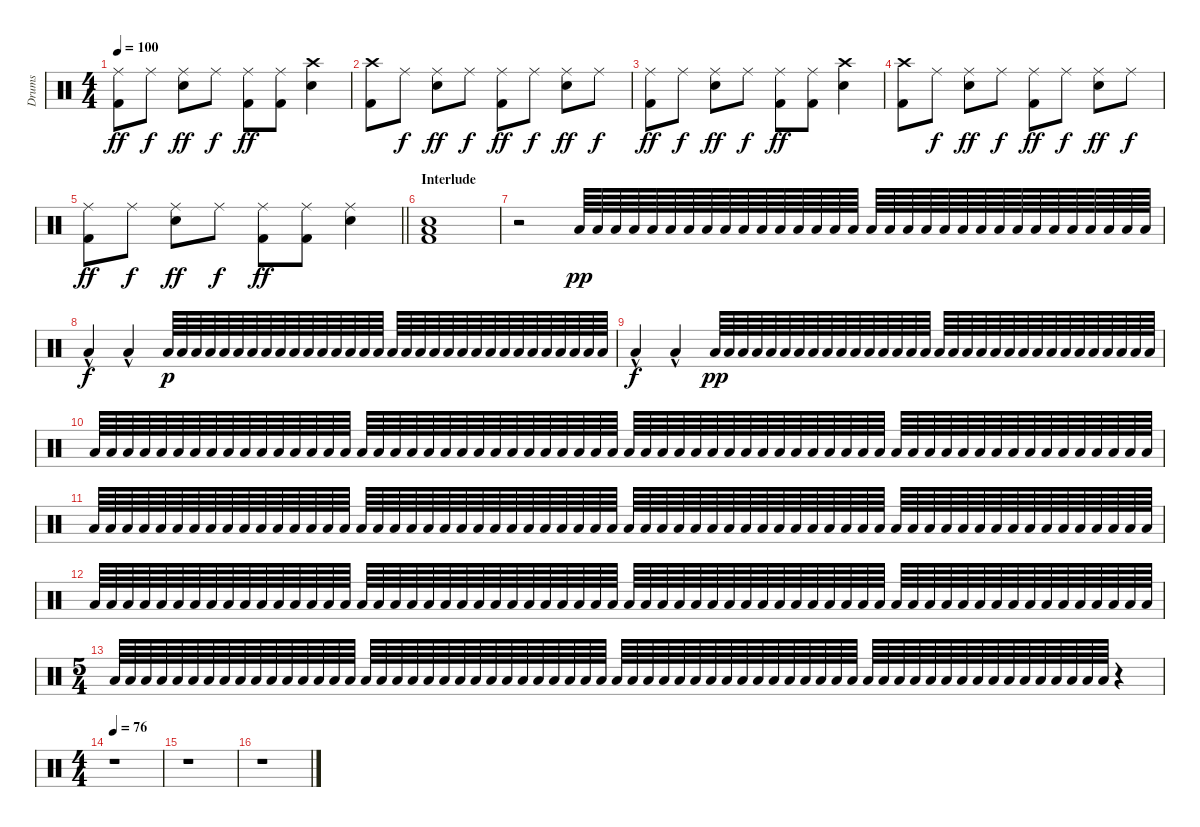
\track ("Drums" "Drums") {instrument percussion}
\staff {score}
\articulation defaults
\ts (4 4)
\tempo 100
\clef neutral
\ks c
("Ride (middle)" "Kick (hit) 2").8{dy ff} "Ride (middle)".8{dy f} ("Ride (middle)" "Snare (hit) 2").8{dy ff} "Ride (middle)".8{dy f} ("Ride (middle)" "Kick (hit) 2").8{dy ff} ("Ride (middle)" "Kick (hit) 2").8 ("Crash high (hit)" "Snare (hit) 2").4 |
("Crash high (hit)" "Kick (hit) 2").8 "Ride (middle)".8{dy f} ("Ride (middle)" "Snare (hit) 2").8{dy ff} "Ride (middle)".8{dy f} ("Ride (middle)" "Kick (hit) 2").8{dy ff} "Ride (middle)".8{dy f} ("Ride (middle)" "Snare (hit) 2").8{dy ff} "Ride (middle)".8{dy f} |
("Ride (middle)" "Kick (hit) 2").8{dy ff} "Ride (middle)".8{dy f} ("Ride (middle)" "Snare (hit) 2").8{dy ff} "Ride (middle)".8{dy f} ("Ride (middle)" "Kick (hit) 2").8{dy ff} ("Ride (middle)" "Kick (hit) 2").8 ("Crash high (hit)" "Snare (hit) 2").4 |
("Crash high (hit)" "Kick (hit) 2").8 "Ride (middle)".8{dy f} ("Ride (middle)" "Snare (hit) 2").8{dy ff} "Ride (middle)".8{dy f} ("Ride (middle)" "Kick (hit) 2").8{dy ff} "Ride (middle)".8{dy f} ("Ride (middle)" "Snare (hit) 2").8{dy ff} "Ride (middle)".8{dy f} |
\barLineRight lightlight
("Ride (middle)" "Kick (hit) 2").8{dy ff} "Ride (middle)".8{dy f} ("Ride (middle)" "Snare (hit) 2").8{dy ff} "Ride (middle)".8{dy f} ("Ride (middle)" "Kick (hit) 2").8{dy ff} ("Ride (middle)" "Kick (hit) 2").8 ("Ride (middle)" "Snare (hit) 2").4 |
\section ("" "Interlude")
("Low Floor Tom (hit)" "Snare (hit) 2" "Kick (hit) 2").1 |
r.2 "Low Tom (hit)".64{dy pp} "Low Tom (hit)".64 "Low Tom (hit)".64 "Low Tom (hit)".64 "Low Tom (hit)".64 "Low Tom (hit)".64 "Low Tom (hit)".64 "Low Tom (hit)".64 "Low Tom (hit)".64 "Low Tom (hit)".64 "Low Tom (hit)".64 "Low Tom (hit)".64 "Low Tom (hit)".64 "Low Tom (hit)".64 "Low Tom (hit)".64 "Low Tom (hit)".64 "Low Tom (hit)".64 "Low Tom (hit)".64 "Low Tom (hit)".64 "Low Tom (hit)".64 "Low Tom (hit)".64 "Low Tom (hit)".64 "Low Tom (hit)".64 "Low Tom (hit)".64 "Low Tom (hit)".64 "Low Tom (hit)".64 "Low Tom (hit)".64 "Low Tom (hit)".64 "Low Tom (hit)".64 "Low Tom (hit)".64 "Low Tom (hit)".64 "Low Tom (hit)".64 |
"Low Tom (hit)"{hac}.4{dy f} "Low Tom (hit)"{hac}.4 "Low Tom (hit)".64{dy p} "Low Tom (hit)".64 "Low Tom (hit)".64 "Low Tom (hit)".64 "Low Tom (hit)".64 "Low Tom (hit)".64 "Low Tom (hit)".64 "Low Tom (hit)".64 "Low Tom (hit)".64 "Low Tom (hit)".64 "Low Tom (hit)".64 "Low Tom (hit)".64 "Low Tom (hit)".64 "Low Tom (hit)".64 "Low Tom (hit)".64 "Low Tom (hit)".64 "Low Tom (hit)".64 "Low Tom (hit)".64 "Low Tom (hit)".64 "Low Tom (hit)".64 "Low Tom (hit)".64 "Low Tom (hit)".64 "Low Tom (hit)".64 "Low Tom (hit)".64 "Low Tom (hit)".64 "Low Tom (hit)".64 "Low Tom (hit)".64 "Low Tom (hit)".64 "Low Tom (hit)".64 "Low Tom (hit)".64 "Low Tom (hit)".64 "Low Tom (hit)".64 |
"Low Tom (hit)"{hac}.4{dy f} "Low Tom (hit)"{hac}.4 "Low Tom (hit)".64{dy pp} "Low Tom (hit)".64 "Low Tom (hit)".64 "Low Tom (hit)".64 "Low Tom (hit)".64 "Low Tom (hit)".64 "Low Tom (hit)".64 "Low Tom (hit)".64 "Low Tom (hit)".64 "Low Tom (hit)".64 "Low Tom (hit)".64 "Low Tom (hit)".64 "Low Tom (hit)".64 "Low Tom (hit)".64 "Low Tom (hit)".64 "Low Tom (hit)".64 "Low Tom (hit)".64 "Low Tom (hit)".64 "Low Tom (hit)".64 "Low Tom (hit)".64 "Low Tom (hit)".64 "Low Tom (hit)".64 "Low Tom (hit)".64 "Low Tom (hit)".64 "Low Tom (hit)".64 "Low Tom (hit)".64 "Low Tom (hit)".64 "Low Tom (hit)".64 "Low Tom (hit)".64 "Low Tom (hit)".64 "Low Tom (hit)".64 "Low Tom (hit)".64 |
"Low Tom (hit)".64 "Low Tom (hit)".64 "Low Tom (hit)".64 "Low Tom (hit)".64 "Low Tom (hit)".64 "Low Tom (hit)".64 "Low Tom (hit)".64 "Low Tom (hit)".64 "Low Tom (hit)".64 "Low Tom (hit)".64 "Low Tom (hit)".64 "Low Tom (hit)".64 "Low Tom (hit)".64 "Low Tom (hit)".64 "Low Tom (hit)".64 "Low Tom (hit)".64 "Low Tom (hit)".64 "Low Tom (hit)".64 "Low Tom (hit)".64 "Low Tom (hit)".64 "Low Tom (hit)".64 "Low Tom (hit)".64 "Low Tom (hit)".64 "Low Tom (hit)".64 "Low Tom (hit)".64 "Low Tom (hit)".64 "Low Tom (hit)".64 "Low Tom (hit)".64 "Low Tom (hit)".64 "Low Tom (hit)".64 "Low Tom (hit)".64 "Low Tom (hit)".64 "Low Tom (hit)".64 "Low Tom (hit)".64 "Low Tom (hit)".64 "Low Tom (hit)".64 "Low Tom (hit)".64 "Low Tom (hit)".64 "Low Tom (hit)".64 "Low Tom (hit)".64 "Low Tom (hit)".64 "Low Tom (hit)".64 "Low Tom (hit)".64 "Low Tom (hit)".64 "Low Tom (hit)".64 "Low Tom (hit)".64 "Low Tom (hit)".64 "Low Tom (hit)".64 "Low Tom (hit)".64 "Low Tom (hit)".64 "Low Tom (hit)".64 "Low Tom (hit)".64 "Low Tom (hit)".64 "Low Tom (hit)".64 "Low Tom (hit)".64 "Low Tom (hit)".64 "Low Tom (hit)".64 "Low Tom (hit)".64 "Low Tom (hit)".64 "Low Tom (hit)".64 "Low Tom (hit)".64 "Low Tom (hit)".64 "Low Tom (hit)".64 "Low Tom (hit)".64 |
"Low Tom (hit)".64 "Low Tom (hit)".64 "Low Tom (hit)".64 "Low Tom (hit)".64 "Low Tom (hit)".64 "Low Tom (hit)".64 "Low Tom (hit)".64 "Low Tom (hit)".64 "Low Tom (hit)".64 "Low Tom (hit)".64 "Low Tom (hit)".64 "Low Tom (hit)".64 "Low Tom (hit)".64 "Low Tom (hit)".64 "Low Tom (hit)".64 "Low Tom (hit)".64 "Low Tom (hit)".64 "Low Tom (hit)".64 "Low Tom (hit)".64 "Low Tom (hit)".64 "Low Tom (hit)".64 "Low Tom (hit)".64 "Low Tom (hit)".64 "Low Tom (hit)".64 "Low Tom (hit)".64 "Low Tom (hit)".64 "Low Tom (hit)".64 "Low Tom (hit)".64 "Low Tom (hit)".64 "Low Tom (hit)".64 "Low Tom (hit)".64 "Low Tom (hit)".64 "Low Tom (hit)".64 "Low Tom (hit)".64 "Low Tom (hit)".64 "Low Tom (hit)".64 "Low Tom (hit)".64 "Low Tom (hit)".64 "Low Tom (hit)".64 "Low Tom (hit)".64 "Low Tom (hit)".64 "Low Tom (hit)".64 "Low Tom (hit)".64 "Low Tom (hit)".64 "Low Tom (hit)".64 "Low Tom (hit)".64 "Low Tom (hit)".64 "Low Tom (hit)".64 "Low Tom (hit)".64 "Low Tom (hit)".64 "Low Tom (hit)".64 "Low Tom (hit)".64 "Low Tom (hit)".64 "Low Tom (hit)".64 "Low Tom (hit)".64 "Low Tom (hit)".64 "Low Tom (hit)".64 "Low Tom (hit)".64 "Low Tom (hit)".64 "Low Tom (hit)".64 "Low Tom (hit)".64 "Low Tom (hit)".64 "Low Tom (hit)".64 "Low Tom (hit)".64 |
"Low Tom (hit)".64 "Low Tom (hit)".64 "Low Tom (hit)".64 "Low Tom (hit)".64 "Low Tom (hit)".64 "Low Tom (hit)".64 "Low Tom (hit)".64 "Low Tom (hit)".64 "Low Tom (hit)".64 "Low Tom (hit)".64 "Low Tom (hit)".64 "Low Tom (hit)".64 "Low Tom (hit)".64 "Low Tom (hit)".64 "Low Tom (hit)".64 "Low Tom (hit)".64 "Low Tom (hit)".64 "Low Tom (hit)".64 "Low Tom (hit)".64 "Low Tom (hit)".64 "Low Tom (hit)".64 "Low Tom (hit)".64 "Low Tom (hit)".64 "Low Tom (hit)".64 "Low Tom (hit)".64 "Low Tom (hit)".64 "Low Tom (hit)".64 "Low Tom (hit)".64 "Low Tom (hit)".64 "Low Tom (hit)".64 "Low Tom (hit)".64 "Low Tom (hit)".64 "Low Tom (hit)".64 "Low Tom (hit)".64 "Low Tom (hit)".64 "Low Tom (hit)".64 "Low Tom (hit)".64 "Low Tom (hit)".64 "Low Tom (hit)".64 "Low Tom (hit)".64 "Low Tom (hit)".64 "Low Tom (hit)".64 "Low Tom (hit)".64 "Low Tom (hit)".64 "Low Tom (hit)".64 "Low Tom (hit)".64 "Low Tom (hit)".64 "Low Tom (hit)".64 "Low Tom (hit)".64 "Low Tom (hit)".64 "Low Tom (hit)".64 "Low Tom (hit)".64 "Low Tom (hit)".64 "Low Tom (hit)".64 "Low Tom (hit)".64 "Low Tom (hit)".64 "Low Tom (hit)".64 "Low Tom (hit)".64 "Low Tom (hit)".64 "Low Tom (hit)".64 "Low Tom (hit)".64 "Low Tom (hit)".64 "Low Tom (hit)".64 "Low Tom (hit)".64 |
\ts (5 4)
"Low Tom (hit)".64 "Low Tom (hit)".64 "Low Tom (hit)".64 "Low Tom (hit)".64 "Low Tom (hit)".64 "Low Tom (hit)".64 "Low Tom (hit)".64 "Low Tom (hit)".64 "Low Tom (hit)".64 "Low Tom (hit)".64 "Low Tom (hit)".64 "Low Tom (hit)".64 "Low Tom (hit)".64 "Low Tom (hit)".64 "Low Tom (hit)".64 "Low Tom (hit)".64 "Low Tom (hit)".64 "Low Tom (hit)".64 "Low Tom (hit)".64 "Low Tom (hit)".64 "Low Tom (hit)".64 "Low Tom (hit)".64 "Low Tom (hit)".64 "Low Tom (hit)".64 "Low Tom (hit)".64 "Low Tom (hit)".64 "Low Tom (hit)".64 "Low Tom (hit)".64 "Low Tom (hit)".64 "Low Tom (hit)".64 "Low Tom (hit)".64 "Low Tom (hit)".64 "Low Tom (hit)".64 "Low Tom (hit)".64 "Low Tom (hit)".64 "Low Tom (hit)".64 "Low Tom (hit)".64 "Low Tom (hit)".64 "Low Tom (hit)".64 "Low Tom (hit)".64 "Low Tom (hit)".64 "Low Tom (hit)".64 "Low Tom (hit)".64 "Low Tom (hit)".64 "Low Tom (hit)".64 "Low Tom (hit)".64 "Low Tom (hit)".64 "Low Tom (hit)".64 "Low Tom (hit)".64 "Low Tom (hit)".64 "Low Tom (hit)".64 "Low Tom (hit)".64 "Low Tom (hit)".64 "Low Tom (hit)".64 "Low Tom (hit)".64 "Low Tom (hit)".64 "Low Tom (hit)".64 "Low Tom (hit)".64 "Low Tom (hit)".64 "Low Tom (hit)".64 "Low Tom (hit)".64 "Low Tom (hit)".64 "Low Tom (hit)".64 "Low Tom (hit)".64 r.4 |
\ts (4 4)
\tempo 76
r.1 |
r.1 |
r.1
